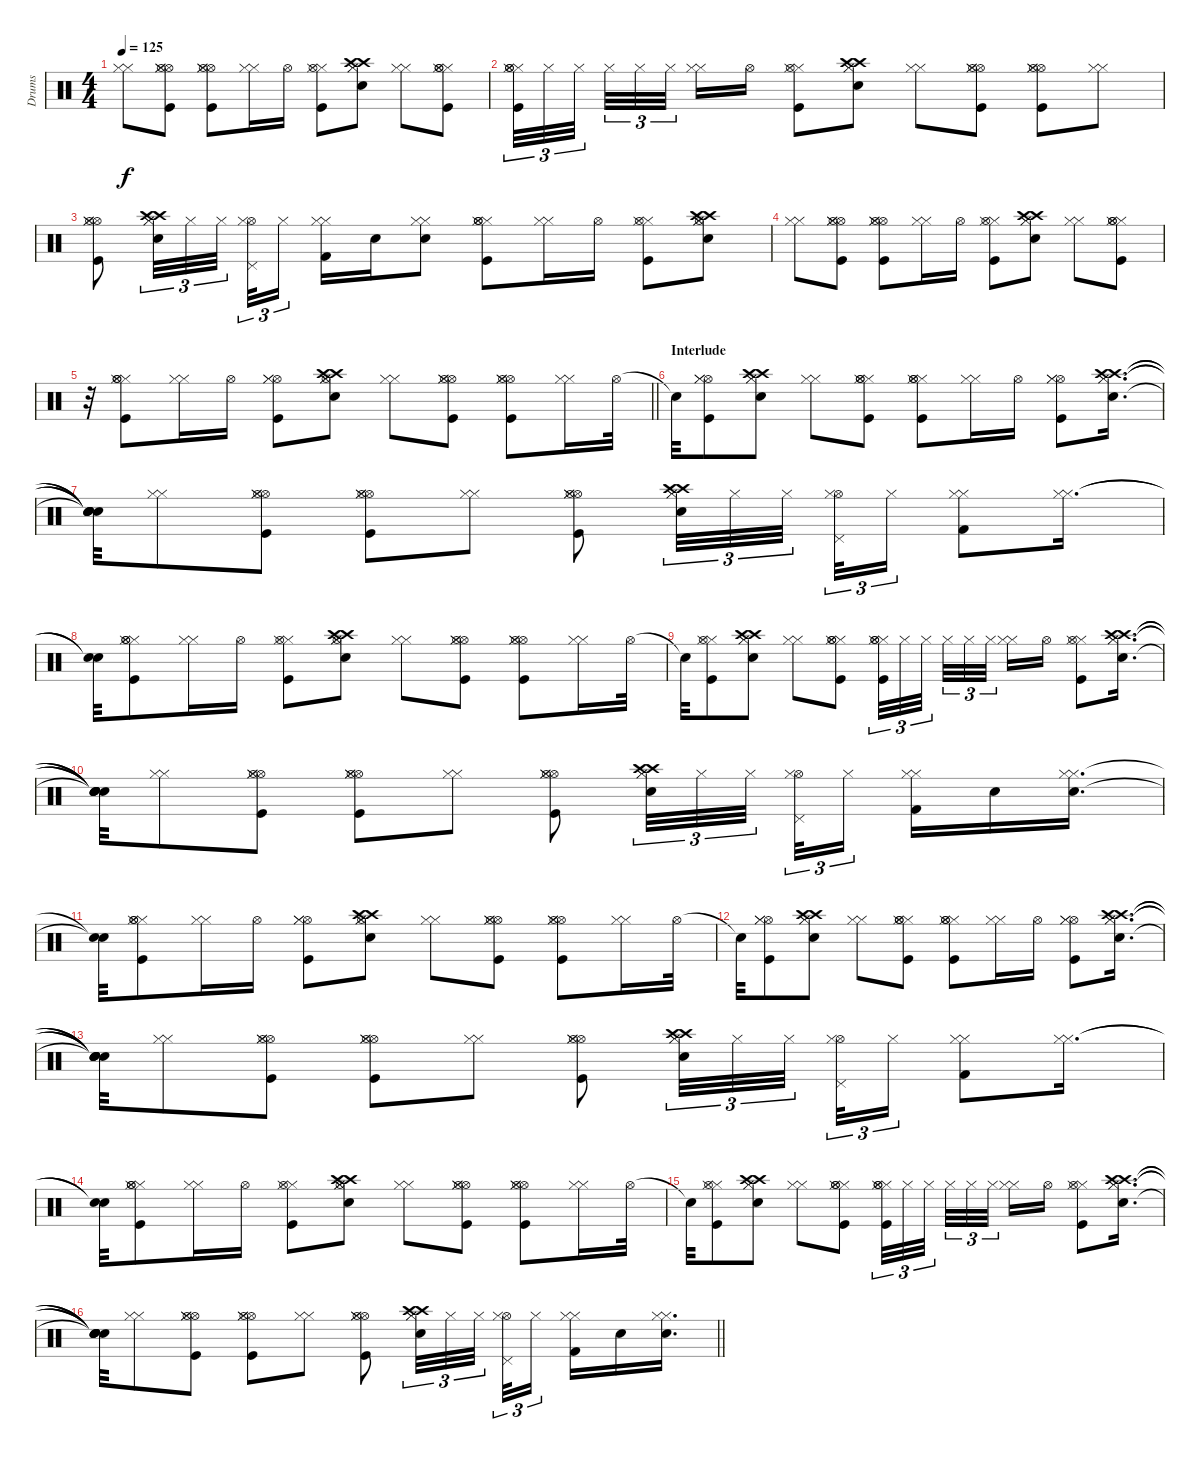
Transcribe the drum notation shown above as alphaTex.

\track ("Drums" "Drums") {instrument percussion}
\staff {score}
\articulation defaults
\ts (4 4)
\tempo 125
\clef neutral
\ks c
("Hi-Hat (closed)" "Hi-Hat (closed)").8{dy f} ("Hi-Hat (open)" "Hi-Hat (closed)" "Kick (hit)" "Hi-Hat (open)" "Hi-Hat (closed)").8 ("Hi-Hat (open)" "Hi-Hat (closed)" "Hi-Hat (open)" "Kick (hit)" "Hi-Hat (closed)").8 ("Hi-Hat (closed)" "Hi-Hat (closed)").16 "Hi-Hat (open)".16 ("Hi-Hat (closed)" "Hi-Hat (open)" "Kick (hit)" "Hi-Hat (closed)").8 ("Crash high (hit)" "Hi-Hat (closed)" "Crash high (hit)" "Electric Snare (hit)" "Hi-Hat (closed)").8 ("Hi-Hat (closed)" "Hi-Hat (closed)").8 ("Hi-Hat (closed)" "Hi-Hat (open)" "Kick (hit)" "Hi-Hat (closed)" "Hi-Hat (open)").8 |
("Hi-Hat (closed)" "Hi-Hat (open)" "Hi-Hat (closed)" "Hi-Hat (open)" "Kick (hit)").32{tu (3 2)} "Hi-Hat (closed)".32{tu (3 2)} "Hi-Hat (closed)".32{tu (3 2) beam splitsecondary} "Hi-Hat (closed)".32{tu (3 2)} "Hi-Hat (closed)".32{tu (3 2)} "Hi-Hat (closed)".32{tu (3 2) beam splitsecondary} ("Hi-Hat (closed)" "Hi-Hat (closed)").16 "Hi-Hat (open)".16 ("Hi-Hat (closed)" "Hi-Hat (open)" "Kick (hit)" "Hi-Hat (closed)").8 ("Crash high (hit)" "Hi-Hat (closed)" "Crash high (hit)" "Hi-Hat (closed)" "Electric Snare (hit)").8 ("Hi-Hat (closed)" "Hi-Hat (closed)").8 ("Hi-Hat (open)" "Hi-Hat (closed)" "Kick (hit)" "Hi-Hat (open)" "Hi-Hat (closed)").8 ("Hi-Hat (open)" "Hi-Hat (closed)" "Hi-Hat (open)" "Kick (hit)" "Hi-Hat (closed)").8 ("Hi-Hat (closed)" "Hi-Hat (closed)").8 |
("Hi-Hat (open)" "Hi-Hat (closed)" "Kick (hit)" "Hi-Hat (open)" "Hi-Hat (closed)").8 ("Crash high (hit)" "Hi-Hat (closed)" "Electric Snare (hit)" "Crash high (hit)" "Hi-Hat (closed)").32{tu (3 2)} "Hi-Hat (closed)".32{tu (3 2)} "Hi-Hat (closed)".32{tu (3 2) beam splitsecondary} ("Hi-Hat (open)" "Hi-Hat (closed)" "Pedal Hi-Hat (hit)").32{tu (3 2)} "Hi-Hat (closed)".16{tu (3 2)} ("Hi-Hat (closed)" "Kick (hit) 2" "Hi-Hat (closed)").16 "Electric Snare (hit)".16 ("Hi-Hat (closed)" "Electric Snare (hit)" "Hi-Hat (closed)").8 ("Hi-Hat (closed)" "Hi-Hat (open)" "Hi-Hat (closed)" "Hi-Hat (open)" "Kick (hit)").8 ("Hi-Hat (closed)" "Hi-Hat (closed)").16 "Hi-Hat (open)".16 ("Hi-Hat (closed)" "Hi-Hat (open)" "Kick (hit)" "Hi-Hat (closed)").8 ("Crash high (hit)" "Hi-Hat (closed)" "Hi-Hat (open)" "Electric Snare (hit)" "Crash high (hit)" "Hi-Hat (closed)").8 |
("Hi-Hat (closed)" "Hi-Hat (closed)").8 ("Hi-Hat (open)" "Hi-Hat (closed)" "Kick (hit)" "Hi-Hat (open)" "Hi-Hat (closed)").8 ("Hi-Hat (open)" "Hi-Hat (closed)" "Hi-Hat (open)" "Kick (hit)" "Hi-Hat (closed)").8 ("Hi-Hat (closed)" "Hi-Hat (closed)").16 "Hi-Hat (open)".16 ("Hi-Hat (closed)" "Hi-Hat (open)" "Kick (hit)" "Hi-Hat (closed)").8 ("Crash high (hit)" "Hi-Hat (closed)" "Crash high (hit)" "Electric Snare (hit)" "Hi-Hat (closed)").8 ("Hi-Hat (closed)" "Hi-Hat (closed)").8 ("Hi-Hat (closed)" "Hi-Hat (open)" "Kick (hit)" "Hi-Hat (closed)" "Hi-Hat (open)").8 |
\barLineRight lightlight
r.32 ("Hi-Hat (closed)" "Hi-Hat (open)" "Kick (hit)" "Hi-Hat (closed)" "Hi-Hat (open)").8 ("Hi-Hat (closed)" "Hi-Hat (closed)").16 "Hi-Hat (open)".16 ("Hi-Hat (open)" "Kick (hit)" "Hi-Hat (closed)" "Hi-Hat (closed)").8 ("Electric Snare (hit)" "Crash high (hit)" "Hi-Hat (closed)" "Crash high (hit)" "Hi-Hat (closed)" "Hi-Hat (open)").8 ("Hi-Hat (closed)" "Hi-Hat (closed)").8 ("Kick (hit)" "Hi-Hat (open)" "Hi-Hat (closed)" "Hi-Hat (open)" "Hi-Hat (closed)").8 ("Hi-Hat (open)" "Kick (hit)" "Hi-Hat (closed)" "Hi-Hat (open)" "Hi-Hat (closed)").8 ("Hi-Hat (closed)" "Hi-Hat (closed)").16 "Hi-Hat (open)".32 |
\section ("" "Interlude")
"Snare (hit)"{t}.32 ("Hi-Hat (open)" "Kick (hit)" "Hi-Hat (closed)" "Hi-Hat (closed)").8 ("Crash high (hit)" "Electric Snare (hit)" "Hi-Hat (closed)" "Crash high (hit)" "Hi-Hat (closed)").8 ("Hi-Hat (closed)" "Hi-Hat (closed)").8 ("Kick (hit)" "Hi-Hat (closed)" "Hi-Hat (open)" "Hi-Hat (closed)" "Hi-Hat (open)").8 ("Hi-Hat (closed)" "Hi-Hat (open)" "Kick (hit)" "Hi-Hat (closed)" "Hi-Hat (open)").8 ("Hi-Hat (closed)" "Hi-Hat (closed)").16 "Hi-Hat (open)".16 ("Hi-Hat (open)" "Kick (hit)" "Hi-Hat (closed)" "Hi-Hat (closed)").8 ("Crash high (hit)" "Hi-Hat (closed)" "Electric Snare (hit)" "Crash high (hit)" "Hi-Hat (closed)").16{d} |
("Snare (hit)"{t} "Snare (hit)"{t} "Snare (hit)"{t} "Snare (hit)"{t} "Snare (hit)"{t}).32 ("Hi-Hat (closed)" "Hi-Hat (closed)").8 ("Kick (hit)" "Hi-Hat (open)" "Hi-Hat (closed)" "Hi-Hat (open)" "Hi-Hat (closed)").8 ("Hi-Hat (open)" "Kick (hit)" "Hi-Hat (closed)" "Hi-Hat (open)" "Hi-Hat (closed)").8 ("Hi-Hat (closed)" "Hi-Hat (closed)").8 ("Kick (hit)" "Hi-Hat (open)" "Hi-Hat (closed)" "Hi-Hat (open)" "Hi-Hat (closed)").8 ("Electric Snare (hit)" "Crash high (hit)" "Hi-Hat (closed)" "Crash high (hit)" "Hi-Hat (closed)").32{tu (3 2)} "Hi-Hat (closed)".32{tu (3 2)} "Hi-Hat (closed)".32{tu (3 2) beam splitsecondary} ("Hi-Hat (open)" "Hi-Hat (closed)" "Pedal Hi-Hat (hit)").32{tu (3 2)} "Hi-Hat (closed)".16{tu (3 2)} ("Kick (hit) 2" "Hi-Hat (closed)" "Hi-Hat (closed)").8 ("Hi-Hat (closed)" "Hi-Hat (closed)").16{d} |
("Snare (hit)"{t} "Snare (hit)"{t}).32 ("Hi-Hat (closed)" "Hi-Hat (open)" "Hi-Hat (closed)" "Hi-Hat (open)" "Kick (hit)").8 ("Hi-Hat (closed)" "Hi-Hat (closed)").16 "Hi-Hat (open)".16 ("Hi-Hat (closed)" "Hi-Hat (open)" "Kick (hit)" "Hi-Hat (closed)").8 ("Crash high (hit)" "Hi-Hat (closed)" "Hi-Hat (open)" "Electric Snare (hit)" "Crash high (hit)" "Hi-Hat (closed)").8 ("Hi-Hat (closed)" "Hi-Hat (closed)").8 ("Hi-Hat (open)" "Hi-Hat (closed)" "Kick (hit)" "Hi-Hat (open)" "Hi-Hat (closed)").8 ("Hi-Hat (open)" "Hi-Hat (closed)" "Hi-Hat (open)" "Kick (hit)" "Hi-Hat (closed)").8 ("Hi-Hat (closed)" "Hi-Hat (closed)").16 "Hi-Hat (open)".32 |
"Snare (hit)"{t}.32 ("Hi-Hat (closed)" "Hi-Hat (open)" "Kick (hit)" "Hi-Hat (closed)").8 ("Crash high (hit)" "Hi-Hat (closed)" "Crash high (hit)" "Electric Snare (hit)" "Hi-Hat (closed)").8 ("Hi-Hat (closed)" "Hi-Hat (closed)").8 ("Hi-Hat (closed)" "Hi-Hat (open)" "Kick (hit)" "Hi-Hat (closed)" "Hi-Hat (open)").8 ("Hi-Hat (closed)" "Hi-Hat (open)" "Hi-Hat (closed)" "Hi-Hat (open)" "Kick (hit)").32{tu (3 2)} "Hi-Hat (closed)".32{tu (3 2)} "Hi-Hat (closed)".32{tu (3 2) beam splitsecondary} "Hi-Hat (closed)".32{tu (3 2)} "Hi-Hat (closed)".32{tu (3 2)} "Hi-Hat (closed)".32{tu (3 2) beam splitsecondary} ("Hi-Hat (closed)" "Hi-Hat (closed)").16 "Hi-Hat (open)".16 ("Hi-Hat (closed)" "Hi-Hat (open)" "Kick (hit)" "Hi-Hat (closed)").8 ("Crash high (hit)" "Hi-Hat (closed)" "Crash high (hit)" "Hi-Hat (closed)" "Electric Snare (hit)").16{d} |
("Snare (hit)"{t} "Snare (hit)"{t} "Snare (hit)"{t} "Snare (hit)"{t} "Snare (hit)"{t}).32 ("Hi-Hat (closed)" "Hi-Hat (closed)").8 ("Hi-Hat (open)" "Hi-Hat (closed)" "Kick (hit)" "Hi-Hat (open)" "Hi-Hat (closed)").8 ("Hi-Hat (open)" "Hi-Hat (closed)" "Hi-Hat (open)" "Kick (hit)" "Hi-Hat (closed)").8 ("Hi-Hat (closed)" "Hi-Hat (closed)").8 ("Hi-Hat (open)" "Hi-Hat (closed)" "Kick (hit)" "Hi-Hat (open)" "Hi-Hat (closed)").8 ("Crash high (hit)" "Hi-Hat (closed)" "Electric Snare (hit)" "Crash high (hit)" "Hi-Hat (closed)").32{tu (3 2)} "Hi-Hat (closed)".32{tu (3 2)} "Hi-Hat (closed)".32{tu (3 2) beam splitsecondary} ("Hi-Hat (open)" "Hi-Hat (closed)" "Pedal Hi-Hat (hit)").32{tu (3 2)} "Hi-Hat (closed)".16{tu (3 2)} ("Hi-Hat (closed)" "Kick (hit) 2" "Hi-Hat (closed)").16 "Electric Snare (hit)".16 ("Hi-Hat (closed)" "Electric Snare (hit)" "Hi-Hat (closed)").16{d} |
("Snare (hit)"{t} "Snare (hit)"{t}).32 ("Hi-Hat (closed)" "Hi-Hat (open)" "Kick (hit)" "Hi-Hat (closed)" "Hi-Hat (open)").8 ("Hi-Hat (closed)" "Hi-Hat (closed)").16 "Hi-Hat (open)".16 ("Hi-Hat (open)" "Kick (hit)" "Hi-Hat (closed)" "Hi-Hat (closed)").8 ("Electric Snare (hit)" "Crash high (hit)" "Hi-Hat (closed)" "Crash high (hit)" "Hi-Hat (closed)" "Hi-Hat (open)").8 ("Hi-Hat (closed)" "Hi-Hat (closed)").8 ("Kick (hit)" "Hi-Hat (open)" "Hi-Hat (closed)" "Hi-Hat (open)" "Hi-Hat (closed)").8 ("Hi-Hat (open)" "Kick (hit)" "Hi-Hat (closed)" "Hi-Hat (open)" "Hi-Hat (closed)").8 ("Hi-Hat (closed)" "Hi-Hat (closed)").16 "Hi-Hat (open)".32 |
"Snare (hit)"{t}.32 ("Hi-Hat (open)" "Kick (hit)" "Hi-Hat (closed)" "Hi-Hat (closed)").8 ("Crash high (hit)" "Electric Snare (hit)" "Hi-Hat (closed)" "Crash high (hit)" "Hi-Hat (closed)").8 ("Hi-Hat (closed)" "Hi-Hat (closed)").8 ("Kick (hit)" "Hi-Hat (closed)" "Hi-Hat (open)" "Hi-Hat (closed)" "Hi-Hat (open)").8 ("Hi-Hat (closed)" "Hi-Hat (open)" "Kick (hit)" "Hi-Hat (closed)" "Hi-Hat (open)").8 ("Hi-Hat (closed)" "Hi-Hat (closed)").16 "Hi-Hat (open)".16 ("Hi-Hat (open)" "Kick (hit)" "Hi-Hat (closed)" "Hi-Hat (closed)").8 ("Crash high (hit)" "Hi-Hat (closed)" "Electric Snare (hit)" "Crash high (hit)" "Hi-Hat (closed)").16{d} |
("Snare (hit)"{t} "Snare (hit)"{t} "Snare (hit)"{t} "Snare (hit)"{t} "Snare (hit)"{t}).32 ("Hi-Hat (closed)" "Hi-Hat (closed)").8 ("Kick (hit)" "Hi-Hat (open)" "Hi-Hat (closed)" "Hi-Hat (open)" "Hi-Hat (closed)").8 ("Hi-Hat (open)" "Kick (hit)" "Hi-Hat (closed)" "Hi-Hat (open)" "Hi-Hat (closed)").8 ("Hi-Hat (closed)" "Hi-Hat (closed)").8 ("Kick (hit)" "Hi-Hat (open)" "Hi-Hat (closed)" "Hi-Hat (open)" "Hi-Hat (closed)").8 ("Electric Snare (hit)" "Crash high (hit)" "Hi-Hat (closed)" "Crash high (hit)" "Hi-Hat (closed)").32{tu (3 2)} "Hi-Hat (closed)".32{tu (3 2)} "Hi-Hat (closed)".32{tu (3 2) beam splitsecondary} ("Hi-Hat (open)" "Hi-Hat (closed)" "Pedal Hi-Hat (hit)").32{tu (3 2)} "Hi-Hat (closed)".16{tu (3 2)} ("Kick (hit) 2" "Hi-Hat (closed)" "Hi-Hat (closed)").8 ("Hi-Hat (closed)" "Hi-Hat (closed)").16{d} |
("Snare (hit)"{t} "Snare (hit)"{t}).32 ("Hi-Hat (closed)" "Hi-Hat (open)" "Hi-Hat (closed)" "Hi-Hat (open)" "Kick (hit)").8 ("Hi-Hat (closed)" "Hi-Hat (closed)").16 "Hi-Hat (open)".16 ("Hi-Hat (closed)" "Hi-Hat (open)" "Kick (hit)" "Hi-Hat (closed)").8 ("Crash high (hit)" "Hi-Hat (closed)" "Hi-Hat (open)" "Electric Snare (hit)" "Crash high (hit)" "Hi-Hat (closed)").8 ("Hi-Hat (closed)" "Hi-Hat (closed)").8 ("Hi-Hat (open)" "Hi-Hat (closed)" "Kick (hit)" "Hi-Hat (open)" "Hi-Hat (closed)").8 ("Hi-Hat (open)" "Hi-Hat (closed)" "Hi-Hat (open)" "Kick (hit)" "Hi-Hat (closed)").8 ("Hi-Hat (closed)" "Hi-Hat (closed)").16 "Hi-Hat (open)".32 |
"Snare (hit)"{t}.32 ("Hi-Hat (closed)" "Hi-Hat (open)" "Kick (hit)" "Hi-Hat (closed)").8 ("Crash high (hit)" "Hi-Hat (closed)" "Crash high (hit)" "Electric Snare (hit)" "Hi-Hat (closed)").8 ("Hi-Hat (closed)" "Hi-Hat (closed)").8 ("Hi-Hat (closed)" "Hi-Hat (open)" "Kick (hit)" "Hi-Hat (closed)" "Hi-Hat (open)").8 ("Hi-Hat (closed)" "Hi-Hat (open)" "Hi-Hat (closed)" "Hi-Hat (open)" "Kick (hit)").32{tu (3 2)} "Hi-Hat (closed)".32{tu (3 2)} "Hi-Hat (closed)".32{tu (3 2) beam splitsecondary} "Hi-Hat (closed)".32{tu (3 2)} "Hi-Hat (closed)".32{tu (3 2)} "Hi-Hat (closed)".32{tu (3 2) beam splitsecondary} ("Hi-Hat (closed)" "Hi-Hat (closed)").16 "Hi-Hat (open)".16 ("Hi-Hat (closed)" "Hi-Hat (open)" "Kick (hit)" "Hi-Hat (closed)").8 ("Crash high (hit)" "Hi-Hat (closed)" "Crash high (hit)" "Hi-Hat (closed)" "Electric Snare (hit)").16{d} |
\barLineRight lightlight
("Snare (hit)"{t} "Snare (hit)"{t} "Snare (hit)"{t} "Snare (hit)"{t} "Snare (hit)"{t}).32 ("Hi-Hat (closed)" "Hi-Hat (closed)").8 ("Hi-Hat (open)" "Hi-Hat (closed)" "Kick (hit)" "Hi-Hat (open)" "Hi-Hat (closed)").8 ("Hi-Hat (open)" "Hi-Hat (closed)" "Hi-Hat (open)" "Kick (hit)" "Hi-Hat (closed)").8 ("Hi-Hat (closed)" "Hi-Hat (closed)").8 ("Hi-Hat (open)" "Hi-Hat (closed)" "Kick (hit)" "Hi-Hat (open)" "Hi-Hat (closed)").8 ("Crash high (hit)" "Hi-Hat (closed)" "Electric Snare (hit)" "Crash high (hit)" "Hi-Hat (closed)").32{tu (3 2)} "Hi-Hat (closed)".32{tu (3 2)} "Hi-Hat (closed)".32{tu (3 2) beam splitsecondary} ("Hi-Hat (open)" "Hi-Hat (closed)" "Pedal Hi-Hat (hit)").32{tu (3 2)} "Hi-Hat (closed)".16{tu (3 2)} ("Hi-Hat (closed)" "Kick (hit) 2" "Hi-Hat (closed)").16 "Electric Snare (hit)".16 ("Hi-Hat (closed)" "Electric Snare (hit)" "Hi-Hat (closed)").16{d}
